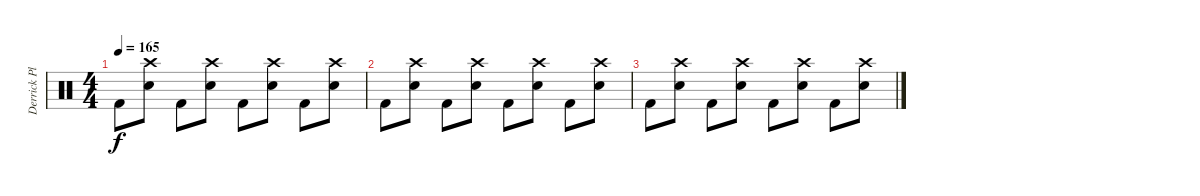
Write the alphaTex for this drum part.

\track ("Derrick Plourde (R.I.P.)" "Derrick Pl") {instrument percussion}
\staff {score}
\articulation defaults
\ts (4 4)
\tempo 165
\clef neutral
\ks c "Kick (hit) 2".8{dy f volume 3}
("Electric Snare (hit)" "Crash high (hit)").8 "Kick (hit) 2".8 ("Electric Snare (hit)" "Crash high (hit)").8 "Kick (hit) 2".8{volume 2} ("Electric Snare (hit)" "Crash high (hit)").8 "Kick (hit) 2".8 ("Electric Snare (hit)" "Crash high (hit)").8 |
"Kick (hit) 2".8{volume 1} ("Electric Snare (hit)" "Crash high (hit)").8 "Kick (hit) 2".8 ("Electric Snare (hit)" "Crash high (hit)").8 "Kick (hit) 2".8{volume 1} ("Electric Snare (hit)" "Crash high (hit)").8 "Kick (hit) 2".8 ("Electric Snare (hit)" "Crash high (hit)").8 |
"Kick (hit) 2".8{volume 0} ("Electric Snare (hit)" "Crash high (hit)").8 "Kick (hit) 2".8 ("Electric Snare (hit)" "Crash high (hit)").8 "Kick (hit) 2".8 ("Electric Snare (hit)" "Crash high (hit)").8 "Kick (hit) 2".8 ("Electric Snare (hit)" "Crash high (hit)").8
